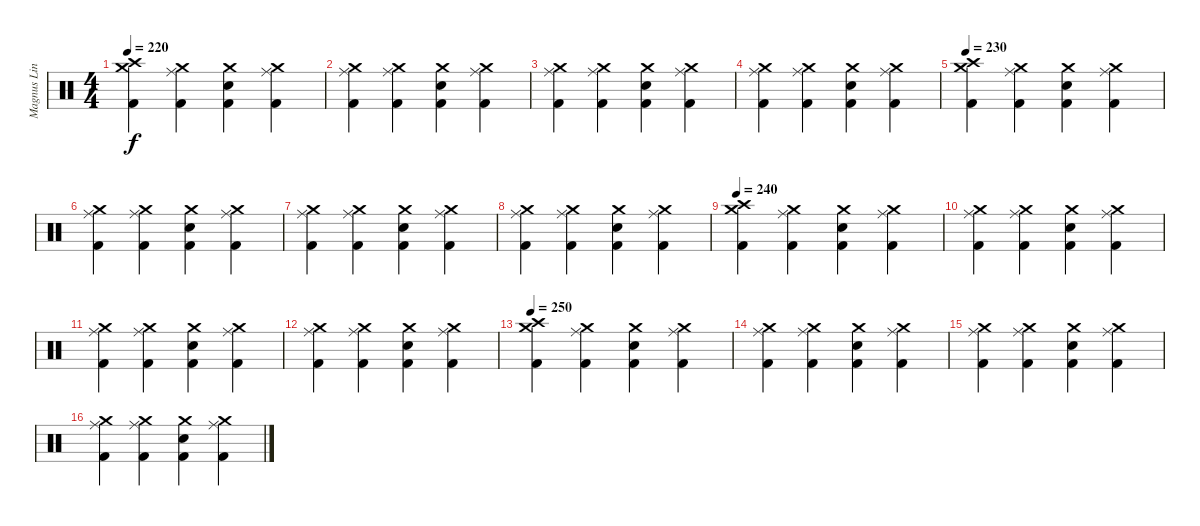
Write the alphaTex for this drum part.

\track ("Magnus Lindberg" "Magnus Lin") {instrument percussion}
\staff {score}
\articulation defaults
\ts (4 4)
\tempo 220
\clef neutral
\ks c
("Crash medium (hit)" "Crash high (hit)" "Kick (hit) 2").4{dy f} ("Crash medium (hit)" "Ride (middle)" "Kick (hit) 2").4 ("Crash medium (hit)" "Snare (hit) 2" "Kick (hit) 2").4 ("Crash medium (hit)" "Ride (middle)" "Kick (hit) 2").4 |
("Crash medium (hit)" "Ride (middle)" "Kick (hit) 2").4 ("Crash medium (hit)" "Ride (middle)" "Kick (hit) 2").4 ("Crash medium (hit)" "Snare (hit) 2" "Kick (hit) 2").4 ("Crash medium (hit)" "Ride (middle)" "Kick (hit) 2").4 |
("Crash medium (hit)" "Ride (middle)" "Kick (hit) 2").4 ("Crash medium (hit)" "Ride (middle)" "Kick (hit) 2").4 ("Crash medium (hit)" "Snare (hit) 2" "Kick (hit) 2").4 ("Crash medium (hit)" "Ride (middle)" "Kick (hit) 2").4 |
("Crash medium (hit)" "Ride (middle)" "Kick (hit) 2").4 ("Crash medium (hit)" "Ride (middle)" "Kick (hit) 2").4 ("Crash medium (hit)" "Snare (hit) 2" "Kick (hit) 2").4 ("Crash medium (hit)" "Ride (middle)" "Kick (hit) 2").4 |
\tempo 230
("Crash medium (hit)" "Crash high (hit)" "Kick (hit) 2").4 ("Crash medium (hit)" "Ride (middle)" "Kick (hit) 2").4 ("Crash medium (hit)" "Snare (hit) 2" "Kick (hit) 2").4 ("Crash medium (hit)" "Ride (middle)" "Kick (hit) 2").4 |
("Crash medium (hit)" "Ride (middle)" "Kick (hit) 2").4 ("Crash medium (hit)" "Ride (middle)" "Kick (hit) 2").4 ("Crash medium (hit)" "Snare (hit) 2" "Kick (hit) 2").4 ("Crash medium (hit)" "Ride (middle)" "Kick (hit) 2").4 |
("Crash medium (hit)" "Ride (middle)" "Kick (hit) 2").4 ("Crash medium (hit)" "Ride (middle)" "Kick (hit) 2").4 ("Crash medium (hit)" "Snare (hit) 2" "Kick (hit) 2").4 ("Crash medium (hit)" "Ride (middle)" "Kick (hit) 2").4 |
("Crash medium (hit)" "Ride (middle)" "Kick (hit) 2").4 ("Crash medium (hit)" "Ride (middle)" "Kick (hit) 2").4 ("Crash medium (hit)" "Snare (hit) 2" "Kick (hit) 2").4 ("Crash medium (hit)" "Ride (middle)" "Kick (hit) 2").4 |
\tempo 240
("Crash medium (hit)" "Crash high (hit)" "Kick (hit) 2").4 ("Crash medium (hit)" "Ride (middle)" "Kick (hit) 2").4 ("Crash medium (hit)" "Snare (hit) 2" "Kick (hit) 2").4 ("Crash medium (hit)" "Ride (middle)" "Kick (hit) 2").4 |
("Crash medium (hit)" "Ride (middle)" "Kick (hit) 2").4 ("Crash medium (hit)" "Ride (middle)" "Kick (hit) 2").4 ("Crash medium (hit)" "Snare (hit) 2" "Kick (hit) 2").4 ("Crash medium (hit)" "Ride (middle)" "Kick (hit) 2").4 |
("Crash medium (hit)" "Ride (middle)" "Kick (hit) 2").4 ("Crash medium (hit)" "Ride (middle)" "Kick (hit) 2").4 ("Crash medium (hit)" "Snare (hit) 2" "Kick (hit) 2").4 ("Crash medium (hit)" "Ride (middle)" "Kick (hit) 2").4 |
("Crash medium (hit)" "Ride (middle)" "Kick (hit) 2").4 ("Crash medium (hit)" "Ride (middle)" "Kick (hit) 2").4 ("Crash medium (hit)" "Snare (hit) 2" "Kick (hit) 2").4 ("Crash medium (hit)" "Ride (middle)" "Kick (hit) 2").4 |
\tempo 250
("Crash medium (hit)" "Crash high (hit)" "Kick (hit) 2").4 ("Crash medium (hit)" "Ride (middle)" "Kick (hit) 2").4 ("Crash medium (hit)" "Snare (hit) 2" "Kick (hit) 2").4 ("Crash medium (hit)" "Ride (middle)" "Kick (hit) 2").4 |
("Crash medium (hit)" "Ride (middle)" "Kick (hit) 2").4 ("Crash medium (hit)" "Ride (middle)" "Kick (hit) 2").4 ("Crash medium (hit)" "Snare (hit) 2" "Kick (hit) 2").4 ("Crash medium (hit)" "Ride (middle)" "Kick (hit) 2").4 |
("Crash medium (hit)" "Ride (middle)" "Kick (hit) 2").4 ("Crash medium (hit)" "Ride (middle)" "Kick (hit) 2").4 ("Crash medium (hit)" "Snare (hit) 2" "Kick (hit) 2").4 ("Crash medium (hit)" "Ride (middle)" "Kick (hit) 2").4 |
("Crash medium (hit)" "Ride (middle)" "Kick (hit) 2").4 ("Crash medium (hit)" "Ride (middle)" "Kick (hit) 2").4 ("Crash medium (hit)" "Snare (hit) 2" "Kick (hit) 2").4 ("Crash medium (hit)" "Ride (middle)" "Kick (hit) 2").4
